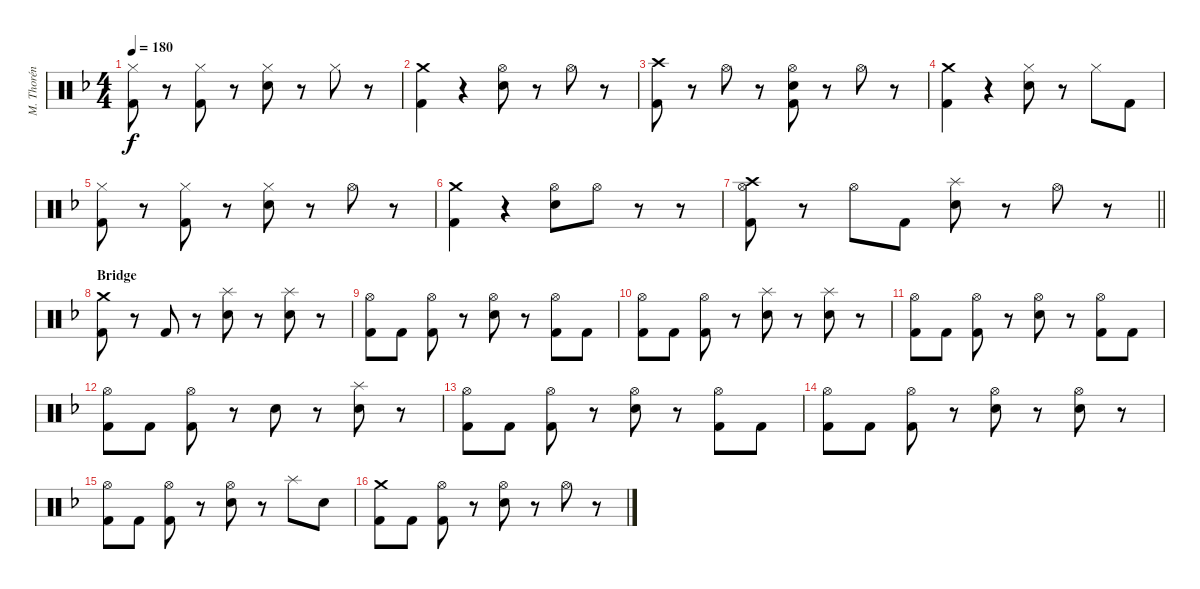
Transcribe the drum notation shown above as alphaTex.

\track ("M. Thorén (Drums)" "M. Thorén ") {instrument percussion}
\staff {score}
\articulation defaults
\ts (4 4)
\tempo 180
\clef neutral
\ks dminor
("Hi-Hat (closed)" "Kick (hit) 2").8{dy f} r.8 ("Hi-Hat (closed)" "Kick (hit) 2").8 r.8 ("Hi-Hat (closed)" "Electric Snare (hit)").8 r.8 "Hi-Hat (closed)".8 r.8 |
("Crash medium (hit)" "Kick (hit) 2").4 r.4 ("Hi-Hat (open)" "Electric Snare (hit)").8 r.8 "Hi-Hat (open)".8 r.8 |
("Crash high (hit)" "Kick (hit) 2").8 r.8 "Hi-Hat (open)".8 r.8 ("Hi-Hat (open)" "Electric Snare (hit)" "Kick (hit) 2").8 r.8 "Hi-Hat (open)".8 r.8 |
("Crash medium (hit)" "Kick (hit) 2").4 r.4 ("Hi-Hat (closed)" "Electric Snare (hit)").8 r.8 "Hi-Hat (closed)".8 "Kick (hit) 2".8 |
("Hi-Hat (closed)" "Kick (hit) 2").8 r.8 ("Hi-Hat (closed)" "Kick (hit) 2").8 r.8 ("Hi-Hat (closed)" "Electric Snare (hit)").8 r.8 "Hi-Hat (open)".8 r.8 |
("Crash medium (hit)" "Kick (hit) 2").4 r.4 ("Hi-Hat (open)" "Electric Snare (hit)").8 "Hi-Hat (open)".8 r.8 r.8 |
\barLineRight lightlight
("Crash high (hit)" "Hi-Hat (open)" "Kick (hit) 2").8 r.8 "Hi-Hat (open)".8 "Kick (hit) 2".8 ("Splash (hit)" "Electric Snare (hit)").8 r.8 "Hi-Hat (open)".8 r.8 |
\section ("" "Bridge")
("Crash medium (hit)" "Kick (hit) 2").8 r.8 "Kick (hit) 2".8 r.8 ("Splash (hit)" "Electric Snare (hit)").8 r.8 ("Splash (hit)" "Electric Snare (hit)").8 r.8 |
("Hi-Hat (open)" "Kick (hit) 2").8 "Kick (hit) 2".8 ("Hi-Hat (open)" "Kick (hit) 2").8 r.8 ("Hi-Hat (open)" "Electric Snare (hit)").8 r.8 ("Hi-Hat (open)" "Kick (hit) 2").8 "Kick (hit) 2".8 |
("Hi-Hat (open)" "Kick (hit) 2").8 "Kick (hit) 2".8 ("Hi-Hat (open)" "Kick (hit) 2").8 r.8 ("Splash (hit)" "Electric Snare (hit)").8 r.8 ("Splash (hit)" "Electric Snare (hit)").8 r.8 |
("Hi-Hat (open)" "Kick (hit) 2").8 "Kick (hit) 2".8 ("Hi-Hat (open)" "Kick (hit) 2").8 r.8 ("Hi-Hat (open)" "Electric Snare (hit)").8 r.8 ("Hi-Hat (open)" "Kick (hit) 2").8 "Kick (hit) 2".8 |
("Hi-Hat (open)" "Kick (hit) 2").8 "Kick (hit) 2".8 ("Hi-Hat (open)" "Kick (hit) 2").8 r.8 "Electric Snare (hit)".8 r.8 ("Splash (hit)" "Electric Snare (hit)").8 r.8 |
("Hi-Hat (open)" "Kick (hit) 2").8 "Kick (hit) 2".8 ("Hi-Hat (open)" "Kick (hit) 2").8 r.8 ("Hi-Hat (open)" "Electric Snare (hit)").8 r.8 ("Hi-Hat (open)" "Kick (hit) 2").8 "Kick (hit) 2".8 |
("Hi-Hat (open)" "Kick (hit) 2").8 "Kick (hit) 2".8 ("Hi-Hat (open)" "Kick (hit) 2").8 r.8 ("Hi-Hat (open)" "Electric Snare (hit)").8 r.8 ("Hi-Hat (open)" "Electric Snare (hit)").8 r.8 |
("Hi-Hat (open)" "Kick (hit) 2").8 "Kick (hit) 2".8 ("Hi-Hat (open)" "Kick (hit) 2").8 r.8 ("Hi-Hat (open)" "Electric Snare (hit)").8 r.8 "Splash (hit)".8 "Electric Snare (hit)".8 |
("Crash medium (hit)" "Kick (hit) 2").8 "Kick (hit) 2".8 ("Hi-Hat (open)" "Kick (hit) 2").8 r.8 ("Hi-Hat (open)" "Electric Snare (hit)").8 r.8 "Hi-Hat (open)".8 r.8
